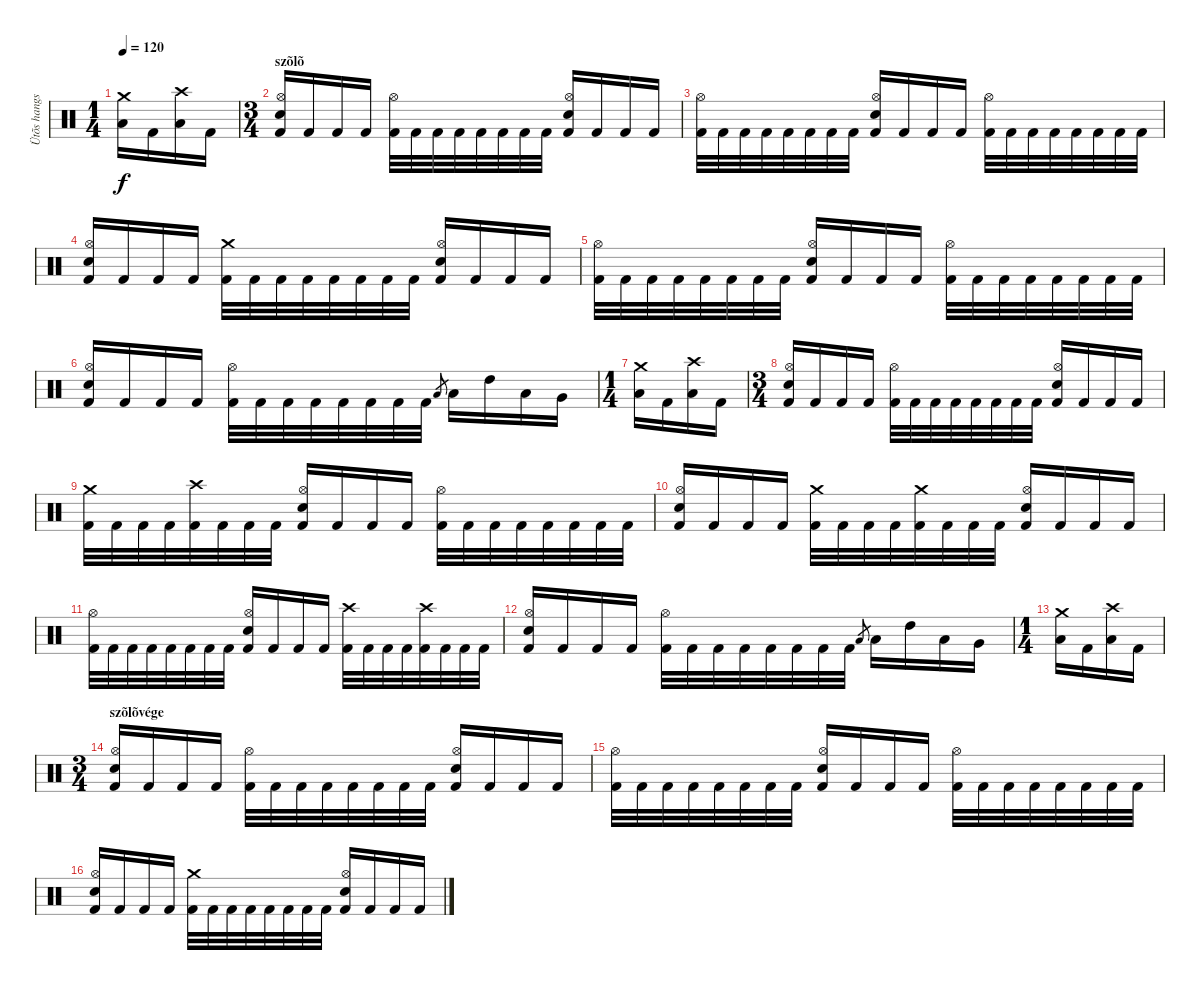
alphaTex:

\track ("Ütõs hangszer" "Ütõs hangs") {instrument percussion}
\staff {score}
\articulation defaults
\ts (1 4)
\tempo 120
\clef neutral
\ks c
("Crash medium (hit)" "Low Floor Tom (hit)").16{dy f} "Kick (hit) 2".16 ("Crash high (hit)" "Low Floor Tom (hit)").16 "Kick (hit) 2".16 |
\ts (3 4)
\section ("" "szõlõ")
("Hi-Hat (open)" "Electric Snare (hit)" "Kick (hit) 2").16 "Kick (hit) 2".16 "Kick (hit) 2".16 "Kick (hit) 2".16 ("Hi-Hat (open)" "Kick (hit) 2").32 "Kick (hit) 2".32 "Kick (hit) 2".32 "Kick (hit) 2".32 "Kick (hit) 2".32 "Kick (hit) 2".32 "Kick (hit) 2".32 "Kick (hit) 2".32 ("Hi-Hat (open)" "Electric Snare (hit)" "Kick (hit) 2").16 "Kick (hit) 2".16 "Kick (hit) 2".16 "Kick (hit) 2".16 |
("Hi-Hat (open)" "Kick (hit) 2").32 "Kick (hit) 2".32 "Kick (hit) 2".32 "Kick (hit) 2".32 "Kick (hit) 2".32 "Kick (hit) 2".32 "Kick (hit) 2".32 "Kick (hit) 2".32 ("Hi-Hat (open)" "Electric Snare (hit)" "Kick (hit) 2").16 "Kick (hit) 2".16 "Kick (hit) 2".16 "Kick (hit) 2".16 ("Hi-Hat (open)" "Kick (hit) 2").32 "Kick (hit) 2".32 "Kick (hit) 2".32 "Kick (hit) 2".32 "Kick (hit) 2".32 "Kick (hit) 2".32 "Kick (hit) 2".32 "Kick (hit) 2".32 |
("Hi-Hat (open)" "Electric Snare (hit)" "Kick (hit) 2").16 "Kick (hit) 2".16 "Kick (hit) 2".16 "Kick (hit) 2".16 ("Crash medium (hit)" "Kick (hit) 2").32 "Kick (hit) 2".32 "Kick (hit) 2".32 "Kick (hit) 2".32 "Kick (hit) 2".32 "Kick (hit) 2".32 "Kick (hit) 2".32 "Kick (hit) 2".32 ("Hi-Hat (open)" "Electric Snare (hit)" "Kick (hit) 2").16 "Kick (hit) 2".16 "Kick (hit) 2".16 "Kick (hit) 2".16 |
("Hi-Hat (open)" "Kick (hit) 2").32 "Kick (hit) 2".32 "Kick (hit) 2".32 "Kick (hit) 2".32 "Kick (hit) 2".32 "Kick (hit) 2".32 "Kick (hit) 2".32 "Kick (hit) 2".32 ("Hi-Hat (open)" "Electric Snare (hit)" "Kick (hit) 2").16 "Kick (hit) 2".16 "Kick (hit) 2".16 "Kick (hit) 2".16 ("Hi-Hat (open)" "Kick (hit) 2").32 "Kick (hit) 2".32 "Kick (hit) 2".32 "Kick (hit) 2".32 "Kick (hit) 2".32 "Kick (hit) 2".32 "Kick (hit) 2".32 "Kick (hit) 2".32 |
("Hi-Hat (open)" "Electric Snare (hit)" "Kick (hit) 2").16 "Kick (hit) 2".16 "Kick (hit) 2".16 "Kick (hit) 2".16 ("Hi-Hat (open)" "Kick (hit) 2").32 "Kick (hit) 2".32 "Kick (hit) 2".32 "Kick (hit) 2".32 "Kick (hit) 2".32 "Kick (hit) 2".32 "Kick (hit) 2".32 "Kick (hit) 2".32 "Low Tom (hit)".8{gr} "Low Tom (hit)".16 "High Tom (hit)".16 "Low Tom (hit)".16 "Very Low Tom (hit)".16 |
\ts (1 4)
("Crash medium (hit)" "Low Floor Tom (hit)").16 "Kick (hit) 2".16 ("Crash high (hit)" "Low Floor Tom (hit)").16 "Kick (hit) 2".16 |
\ts (3 4)
("Hi-Hat (open)" "Electric Snare (hit)" "Kick (hit) 2").16 "Kick (hit) 2".16 "Kick (hit) 2".16 "Kick (hit) 2".16 ("Hi-Hat (open)" "Kick (hit) 2").32 "Kick (hit) 2".32 "Kick (hit) 2".32 "Kick (hit) 2".32 "Kick (hit) 2".32 "Kick (hit) 2".32 "Kick (hit) 2".32 "Kick (hit) 2".32 ("Hi-Hat (open)" "Electric Snare (hit)" "Kick (hit) 2").16 "Kick (hit) 2".16 "Kick (hit) 2".16 "Kick (hit) 2".16 |
("Crash medium (hit)" "Kick (hit) 2").32 "Kick (hit) 2".32 "Kick (hit) 2".32 "Kick (hit) 2".32 ("Crash high (hit)" "Kick (hit) 2").32 "Kick (hit) 2".32 "Kick (hit) 2".32 "Kick (hit) 2".32 ("Hi-Hat (open)" "Electric Snare (hit)" "Kick (hit) 2").16 "Kick (hit) 2".16 "Kick (hit) 2".16 "Kick (hit) 2".16 ("Hi-Hat (open)" "Kick (hit) 2").32 "Kick (hit) 2".32 "Kick (hit) 2".32 "Kick (hit) 2".32 "Kick (hit) 2".32 "Kick (hit) 2".32 "Kick (hit) 2".32 "Kick (hit) 2".32 |
("Hi-Hat (open)" "Electric Snare (hit)" "Kick (hit) 2").16 "Kick (hit) 2".16 "Kick (hit) 2".16 "Kick (hit) 2".16 ("Crash medium (hit)" "Kick (hit) 2").32 "Kick (hit) 2".32 "Kick (hit) 2".32 "Kick (hit) 2".32 ("Crash medium (hit)" "Kick (hit) 2").32 "Kick (hit) 2".32 "Kick (hit) 2".32 "Kick (hit) 2".32 ("Hi-Hat (open)" "Electric Snare (hit)" "Kick (hit) 2").16 "Kick (hit) 2".16 "Kick (hit) 2".16 "Kick (hit) 2".16 |
("Hi-Hat (open)" "Kick (hit) 2").32 "Kick (hit) 2".32 "Kick (hit) 2".32 "Kick (hit) 2".32 "Kick (hit) 2".32 "Kick (hit) 2".32 "Kick (hit) 2".32 "Kick (hit) 2".32 ("Hi-Hat (open)" "Electric Snare (hit)" "Kick (hit) 2").16 "Kick (hit) 2".16 "Kick (hit) 2".16 "Kick (hit) 2".16 ("Crash high (hit)" "Kick (hit) 2").32 "Kick (hit) 2".32 "Kick (hit) 2".32 "Kick (hit) 2".32 ("Crash high (hit)" "Kick (hit) 2").32 "Kick (hit) 2".32 "Kick (hit) 2".32 "Kick (hit) 2".32 |
("Hi-Hat (open)" "Electric Snare (hit)" "Kick (hit) 2").16 "Kick (hit) 2".16 "Kick (hit) 2".16 "Kick (hit) 2".16 ("Hi-Hat (open)" "Kick (hit) 2").32 "Kick (hit) 2".32 "Kick (hit) 2".32 "Kick (hit) 2".32 "Kick (hit) 2".32 "Kick (hit) 2".32 "Kick (hit) 2".32 "Kick (hit) 2".32 "Low Tom (hit)".8{gr} "Low Tom (hit)".16 "High Tom (hit)".16 "Low Tom (hit)".16 "Very Low Tom (hit)".16 |
\ts (1 4)
("Crash medium (hit)" "Low Floor Tom (hit)").16 "Kick (hit) 2".16 ("Crash high (hit)" "Low Floor Tom (hit)").16 "Kick (hit) 2".16 |
\ts (3 4)
\section ("" "szõlõvége")
("Hi-Hat (open)" "Electric Snare (hit)" "Kick (hit) 2").16 "Kick (hit) 2".16 "Kick (hit) 2".16 "Kick (hit) 2".16 ("Hi-Hat (open)" "Kick (hit) 2").32 "Kick (hit) 2".32 "Kick (hit) 2".32 "Kick (hit) 2".32 "Kick (hit) 2".32 "Kick (hit) 2".32 "Kick (hit) 2".32 "Kick (hit) 2".32 ("Hi-Hat (open)" "Electric Snare (hit)" "Kick (hit) 2").16 "Kick (hit) 2".16 "Kick (hit) 2".16 "Kick (hit) 2".16 |
("Hi-Hat (open)" "Kick (hit) 2").32 "Kick (hit) 2".32 "Kick (hit) 2".32 "Kick (hit) 2".32 "Kick (hit) 2".32 "Kick (hit) 2".32 "Kick (hit) 2".32 "Kick (hit) 2".32 ("Hi-Hat (open)" "Electric Snare (hit)" "Kick (hit) 2").16 "Kick (hit) 2".16 "Kick (hit) 2".16 "Kick (hit) 2".16 ("Hi-Hat (open)" "Kick (hit) 2").32 "Kick (hit) 2".32 "Kick (hit) 2".32 "Kick (hit) 2".32 "Kick (hit) 2".32 "Kick (hit) 2".32 "Kick (hit) 2".32 "Kick (hit) 2".32 |
("Hi-Hat (open)" "Electric Snare (hit)" "Kick (hit) 2").16 "Kick (hit) 2".16 "Kick (hit) 2".16 "Kick (hit) 2".16 ("Crash medium (hit)" "Kick (hit) 2").32 "Kick (hit) 2".32 "Kick (hit) 2".32 "Kick (hit) 2".32 "Kick (hit) 2".32 "Kick (hit) 2".32 "Kick (hit) 2".32 "Kick (hit) 2".32 ("Hi-Hat (open)" "Electric Snare (hit)" "Kick (hit) 2").16 "Kick (hit) 2".16 "Kick (hit) 2".16 "Kick (hit) 2".16
